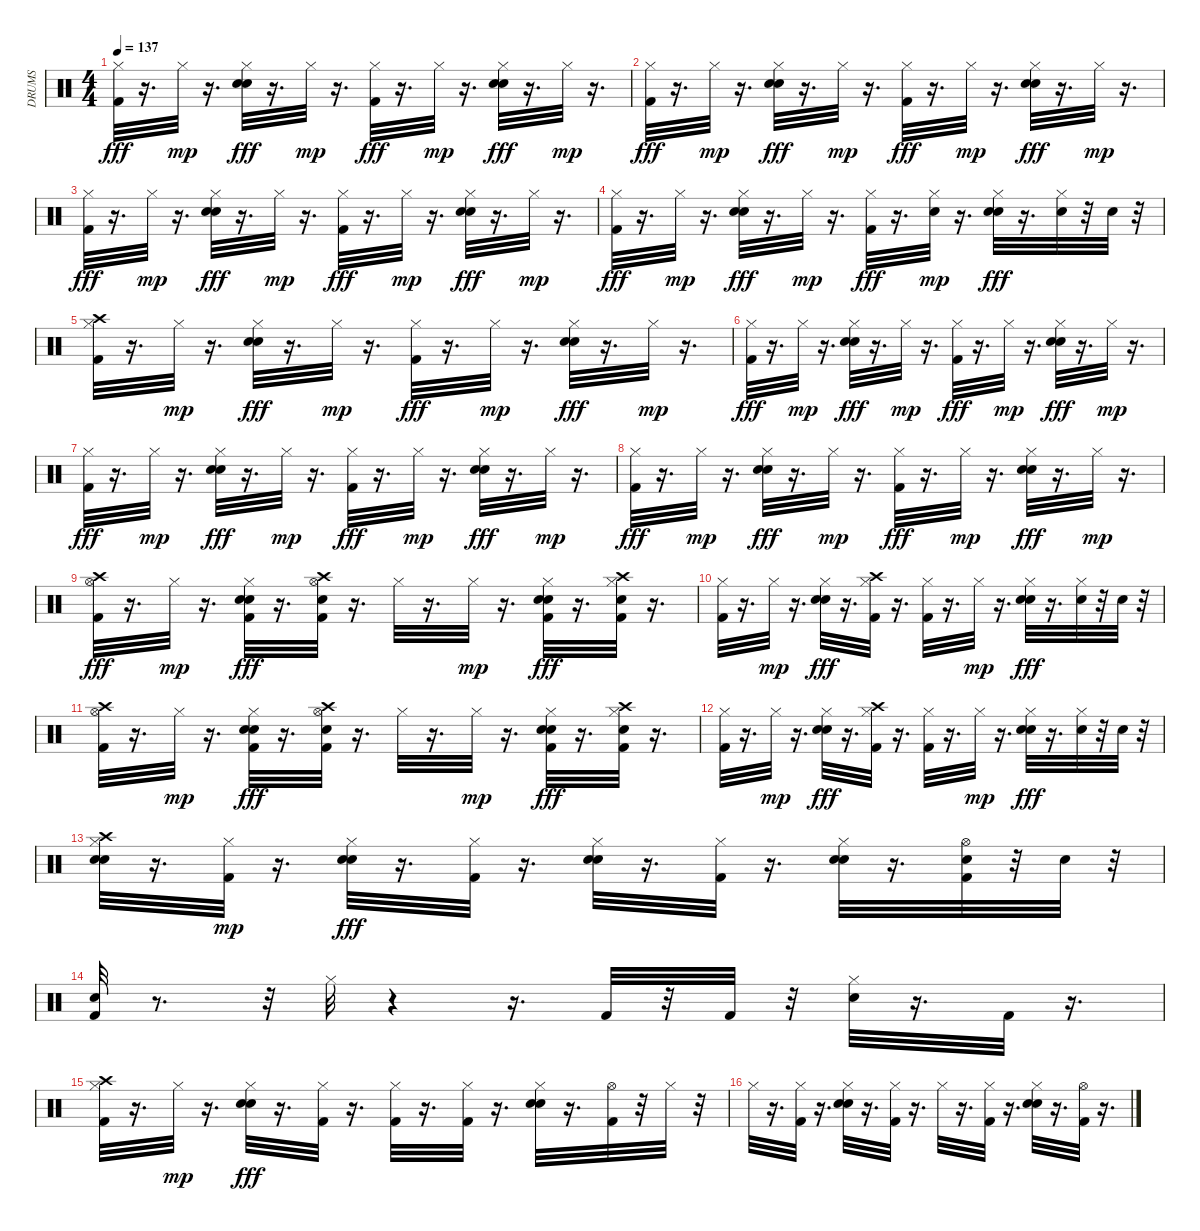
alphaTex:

\track ("DRUMS" "DRUMS") {instrument percussion}
\staff {score}
\articulation defaults
\ts (4 4)
\tempo 137
\clef neutral
\ks c
("Hi-Hat (closed)" "Kick (hit) 2").32{dy fff} r.16{d} "Hi-Hat (closed)".32{dy mp} r.16{d} ("Hand Clap (hit)" "Hi-Hat (closed)" "Snare (hit) 2").32{dy fff} r.16{d} "Hi-Hat (closed)".32{dy mp} r.16{d} ("Hi-Hat (closed)" "Kick (hit) 2").32{dy fff} r.16{d} "Hi-Hat (closed)".32{dy mp} r.16{d} ("Hand Clap (hit)" "Hi-Hat (closed)" "Snare (hit) 2").32{dy fff} r.16{d} "Hi-Hat (closed)".32{dy mp} r.16{d} |
("Hi-Hat (closed)" "Kick (hit) 2").32{dy fff} r.16{d} "Hi-Hat (closed)".32{dy mp} r.16{d} ("Hand Clap (hit)" "Hi-Hat (closed)" "Snare (hit) 2").32{dy fff} r.16{d} "Hi-Hat (closed)".32{dy mp} r.16{d} ("Hi-Hat (closed)" "Kick (hit) 2").32{dy fff} r.16{d} "Hi-Hat (closed)".32{dy mp} r.16{d} ("Hand Clap (hit)" "Hi-Hat (closed)" "Snare (hit) 2").32{dy fff} r.16{d} "Hi-Hat (closed)".32{dy mp} r.16{d} |
("Hi-Hat (closed)" "Kick (hit) 2").32{dy fff} r.16{d} "Hi-Hat (closed)".32{dy mp} r.16{d} ("Hand Clap (hit)" "Hi-Hat (closed)" "Snare (hit) 2").32{dy fff} r.16{d} "Hi-Hat (closed)".32{dy mp} r.16{d} ("Hi-Hat (closed)" "Kick (hit) 2").32{dy fff} r.16{d} "Hi-Hat (closed)".32{dy mp} r.16{d} ("Hand Clap (hit)" "Hi-Hat (closed)" "Snare (hit) 2").32{dy fff} r.16{d} "Hi-Hat (closed)".32{dy mp} r.16{d} |
("Hi-Hat (closed)" "Kick (hit) 2").32{dy fff} r.16{d} "Hi-Hat (closed)".32{dy mp} r.16{d} ("Hand Clap (hit)" "Hi-Hat (closed)" "Snare (hit) 2").32{dy fff} r.16{d} "Hi-Hat (closed)".32{dy mp} r.16{d} ("Hi-Hat (closed)" "Kick (hit) 2").32{dy fff} r.16{d} ("Hand Clap (hit)" "Hi-Hat (closed)").32{dy mp} r.16{d} ("Hand Clap (hit)" "Hi-Hat (closed)" "Snare (hit) 2").32{dy fff} r.16{d} ("Hi-Hat (closed)" "Snare (hit) 2").32 r.32 "Snare (hit) 2".32 r.32 |
("Crash high (hit)" "Hi-Hat (closed)" "Kick (hit) 2").32 r.16{d} "Hi-Hat (closed)".32{dy mp} r.16{d} ("Hand Clap (hit)" "Hi-Hat (closed)" "Snare (hit) 2").32{dy fff} r.16{d} "Hi-Hat (closed)".32{dy mp} r.16{d} ("Hi-Hat (closed)" "Kick (hit) 2").32{dy fff} r.16{d} "Hi-Hat (closed)".32{dy mp} r.16{d} ("Hand Clap (hit)" "Hi-Hat (closed)" "Snare (hit) 2").32{dy fff} r.16{d} "Hi-Hat (closed)".32{dy mp} r.16{d} |
("Hi-Hat (closed)" "Kick (hit) 2").32{dy fff} r.16{d} "Hi-Hat (closed)".32{dy mp} r.16{d} ("Hand Clap (hit)" "Hi-Hat (closed)" "Snare (hit) 2").32{dy fff} r.16{d} "Hi-Hat (closed)".32{dy mp} r.16{d} ("Hi-Hat (closed)" "Kick (hit) 2").32{dy fff} r.16{d} "Hi-Hat (closed)".32{dy mp} r.16{d} ("Hand Clap (hit)" "Hi-Hat (closed)" "Snare (hit) 2").32{dy fff} r.16{d} "Hi-Hat (closed)".32{dy mp} r.16{d} |
("Hi-Hat (closed)" "Kick (hit) 2").32{dy fff} r.16{d} "Hi-Hat (closed)".32{dy mp} r.16{d} ("Hand Clap (hit)" "Hi-Hat (closed)" "Snare (hit) 2").32{dy fff} r.16{d} "Hi-Hat (closed)".32{dy mp} r.16{d} ("Hi-Hat (closed)" "Kick (hit) 2").32{dy fff} r.16{d} "Hi-Hat (closed)".32{dy mp} r.16{d} ("Hand Clap (hit)" "Hi-Hat (closed)" "Snare (hit) 2").32{dy fff} r.16{d} "Hi-Hat (closed)".32{dy mp} r.16{d} |
("Hi-Hat (closed)" "Kick (hit) 2").32{dy fff} r.16{d} "Hi-Hat (closed)".32{dy mp} r.16{d} ("Hand Clap (hit)" "Hi-Hat (closed)" "Snare (hit) 2").32{dy fff} r.16{d} "Hi-Hat (closed)".32{dy mp} r.16{d} ("Hi-Hat (closed)" "Kick (hit) 2").32{dy fff} r.16{d} "Hi-Hat (closed)".32{dy mp} r.16{d} ("Hand Clap (hit)" "Hi-Hat (closed)" "Snare (hit) 2").32{dy fff} r.16{d} "Hi-Hat (closed)".32{dy mp} r.16{d} |
("Hi-Hat (open)" "Crash high (hit)" "Kick (hit) 2").32{dy fff} r.16{d} "Hi-Hat (closed)".32{dy mp} r.16{d} ("Hand Clap (hit)" "Hi-Hat (closed)" "Snare (hit) 2" "Kick (hit) 2").32{dy fff} r.16{d} ("Hi-Hat (open)" "Crash high (hit)" "Snare (hit) 2" "Kick (hit) 2").32 r.16{d} "Hi-Hat (closed)".32 r.16{d} "Hi-Hat (closed)".32{dy mp} r.16{d} ("Hand Clap (hit)" "Hi-Hat (closed)" "Snare (hit) 2" "Kick (hit) 2").32{dy fff} r.16{d} ("Crash high (hit)" "Hi-Hat (closed)" "Snare (hit) 2" "Kick (hit) 2").32 r.16{d} |
("Hi-Hat (closed)" "Kick (hit) 2").32 r.16{d} "Hi-Hat (closed)".32{dy mp} r.16{d} ("Hand Clap (hit)" "Hi-Hat (closed)" "Snare (hit) 2").32{dy fff} r.16{d} ("Crash high (hit)" "Hi-Hat (closed)" "Kick (hit) 2").32 r.16{d} ("Hi-Hat (closed)" "Kick (hit) 2").32 r.16{d} "Hi-Hat (closed)".32{dy mp} r.16{d} ("Hand Clap (hit)" "Hi-Hat (closed)" "Snare (hit) 2").32{dy fff} r.16{d} ("Hi-Hat (closed)" "Snare (hit) 2").32 r.32 "Snare (hit) 2".32 r.32 |
("Crash high (hit)" "Hi-Hat (open)" "Kick (hit) 2").32 r.16{d} "Hi-Hat (closed)".32{dy mp} r.16{d} ("Hand Clap (hit)" "Hi-Hat (closed)" "Snare (hit) 2" "Kick (hit) 2").32{dy fff} r.16{d} ("Hi-Hat (open)" "Crash high (hit)" "Snare (hit) 2" "Kick (hit) 2").32 r.16{d} "Hi-Hat (closed)".32 r.16{d} "Hi-Hat (closed)".32{dy mp} r.16{d} ("Hand Clap (hit)" "Hi-Hat (closed)" "Snare (hit) 2" "Kick (hit) 2").32{dy fff} r.16{d} ("Crash high (hit)" "Hi-Hat (closed)" "Snare (hit) 2" "Kick (hit) 2").32 r.16{d} |
("Hi-Hat (closed)" "Kick (hit) 2").32 r.16{d} "Hi-Hat (closed)".32{dy mp} r.16{d} ("Hand Clap (hit)" "Hi-Hat (closed)" "Snare (hit) 2").32{dy fff} r.16{d} ("Crash high (hit)" "Hi-Hat (closed)" "Kick (hit) 2").32 r.16{d} ("Hi-Hat (closed)" "Kick (hit) 2").32 r.16{d} "Hi-Hat (closed)".32{dy mp} r.16{d} ("Hand Clap (hit)" "Hi-Hat (closed)" "Snare (hit) 2").32{dy fff} r.16{d} ("Hi-Hat (closed)" "Snare (hit) 2").32 r.32 "Snare (hit) 2".32 r.32 |
("Hand Clap (hit)" "Crash high (hit)" "Hi-Hat (closed)" "Snare (hit) 2").32 r.16{d} ("Kick (hit) 2" "Hi-Hat (closed)").32{dy mp} r.16{d} ("Hand Clap (hit)" "Hi-Hat (closed)" "Snare (hit) 2").32{dy fff} r.16{d} ("Hi-Hat (closed)" "Kick (hit) 2").32 r.16{d} ("Hand Clap (hit)" "Hi-Hat (closed)" "Snare (hit) 2").32 r.16{d} ("Hi-Hat (closed)" "Kick (hit) 2").32 r.16{d} ("Hand Clap (hit)" "Hi-Hat (closed)" "Snare (hit) 2").32 r.16{d} ("Hi-Hat (open)" "Snare (hit) 2" "Kick (hit) 2").32 r.32 "Snare (hit) 2".32 r.32 |
("Snare (hit) 2" "Kick (hit) 2").32 r.8{d} r.32 "Hi-Hat (closed)".32 r.4 r.16{d} "Kick (hit) 2".32 r.32 "Kick (hit) 2".32 r.32 ("Hi-Hat (closed)" "Snare (hit) 2").32 r.16{d} "Kick (hit) 2".32 r.16{d} |
("Crash high (hit)" "Hi-Hat (closed)" "Kick (hit) 2").32 r.16{d} "Hi-Hat (closed)".32{dy mp} r.16{d} ("Hand Clap (hit)" "Hi-Hat (closed)" "Snare (hit) 2").32{dy fff} r.16{d} ("Hi-Hat (closed)" "Kick (hit) 2").32 r.16{d} ("Hi-Hat (closed)" "Kick (hit) 2").32 r.16{d} ("Hi-Hat (closed)" "Kick (hit) 2").32 r.16{d} ("Hand Clap (hit)" "Hi-Hat (closed)" "Snare (hit) 2").32 r.16{d} ("Hi-Hat (open)" "Kick (hit) 2").32 r.32 "Hi-Hat (closed)".32 r.32 |
"Hi-Hat (closed)".32 r.16{d} ("Hi-Hat (closed)" "Kick (hit) 2").32 r.16{d} ("Hand Clap (hit)" "Hi-Hat (closed)" "Snare (hit) 2").32 r.16{d} ("Hi-Hat (closed)" "Kick (hit) 2").32 r.16{d} "Hi-Hat (closed)".32 r.16{d} ("Hi-Hat (closed)" "Kick (hit) 2").32 r.16{d} ("Hand Clap (hit)" "Hi-Hat (closed)" "Snare (hit) 2").32 r.16{d} ("Hi-Hat (open)" "Kick (hit) 2").32 r.16{d}
